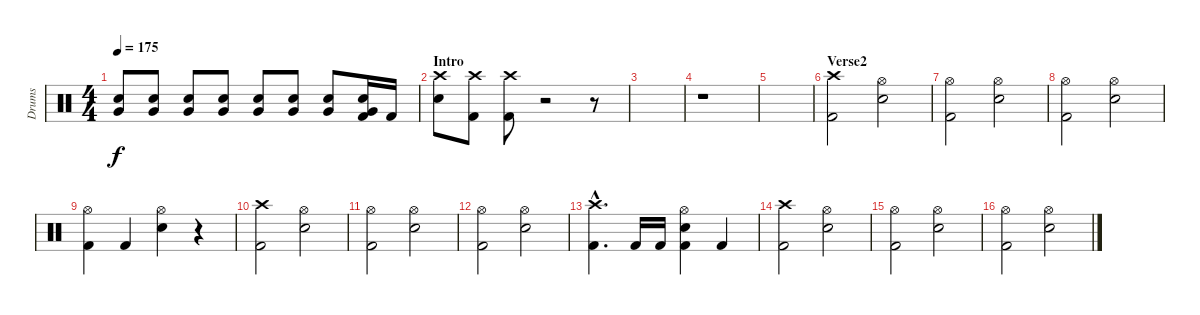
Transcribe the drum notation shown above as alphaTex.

\track ("Drums" "Drums") {instrument percussion}
\staff {score}
\articulation defaults
\ts (4 4)
\tempo 175
\clef neutral
\ks c
("Very Low Tom (hit)" "Snare (hit) 2").8{dy f} ("Very Low Tom (hit)" "Snare (hit) 2").8 ("Very Low Tom (hit)" "Snare (hit) 2").8 ("Very Low Tom (hit)" "Snare (hit) 2").8 ("Very Low Tom (hit)" "Snare (hit) 2").8 ("Very Low Tom (hit)" "Snare (hit) 2").8 ("Very Low Tom (hit)" "Snare (hit) 2").8 ("Very Low Tom (hit)" "Snare (hit) 2" "Kick (hit) 2").16 "Kick (hit) 2".16 |
\section ("" "Intro")
("Crash high (hit)" "Snare (hit) 2").8 ("Crash high (hit)" "Kick (hit) 2").8 ("Crash high (hit)" "Kick (hit) 2").8 r.2{volume 0} r.8 |
|
r.1 |
|
\section ("" "Verse2")
("Crash high (hit)" "Kick (hit) 2").2{volume 13} ("Hi-Hat (open)" "Snare (hit) 2").2 |
("Hi-Hat (open)" "Kick (hit) 2").2 ("Hi-Hat (open)" "Snare (hit) 2").2 |
("Hi-Hat (open)" "Kick (hit) 2").2 ("Hi-Hat (open)" "Snare (hit) 2").2 |
("Hi-Hat (open)" "Kick (hit) 2").4 "Kick (hit) 2".4 ("Hi-Hat (open)" "Snare (hit) 2").4 r.4 |
("Crash high (hit)" "Kick (hit) 2").2 ("Hi-Hat (open)" "Snare (hit) 2").2 |
("Hi-Hat (open)" "Kick (hit) 2").2 ("Hi-Hat (open)" "Snare (hit) 2").2 |
("Hi-Hat (open)" "Kick (hit) 2").2 ("Hi-Hat (open)" "Snare (hit) 2").2 |
("Crash high (hit)"{hac} "Kick (hit) 2"{hac}).4{d} "Kick (hit) 2".16 "Kick (hit) 2".16 ("Hi-Hat (open)" "Snare (hit) 2" "Kick (hit) 2").4 "Kick (hit) 2".4 |
("Crash high (hit)" "Kick (hit) 2").2 ("Hi-Hat (open)" "Snare (hit) 2").2 |
("Hi-Hat (open)" "Kick (hit) 2").2 ("Hi-Hat (open)" "Snare (hit) 2").2 |
("Hi-Hat (open)" "Kick (hit) 2").2 ("Hi-Hat (open)" "Snare (hit) 2").2
